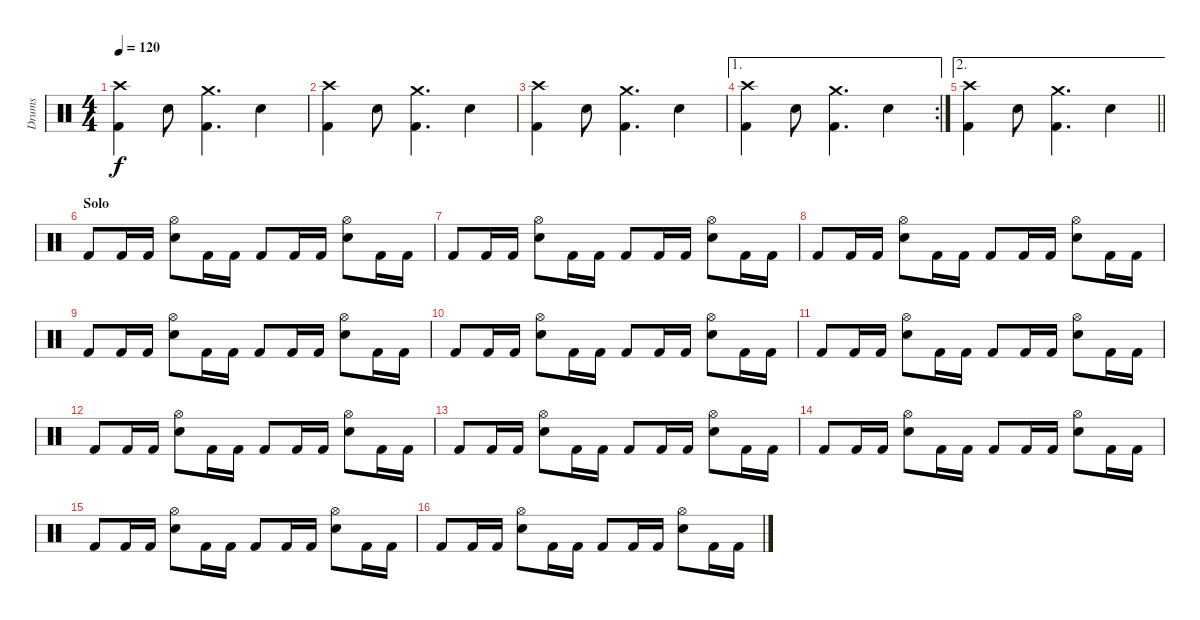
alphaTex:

\track ("Drums" "Drums") {instrument percussion}
\staff {score}
\articulation defaults
\ts (4 4)
\tempo 120
\clef neutral
\ks c
("Kick (hit) 2" "Crash high (hit)").4{dy f} "Snare (hit) 2".8 ("Kick (hit) 2" "Crash medium (hit)").4{d} "Snare (hit) 2".4 |
("Kick (hit) 2" "Crash high (hit)").4 "Snare (hit) 2".8 ("Kick (hit) 2" "Crash medium (hit)").4{d} "Snare (hit) 2".4 |
("Kick (hit) 2" "Crash high (hit)").4 "Snare (hit) 2".8 ("Kick (hit) 2" "Crash medium (hit)").4{d} "Snare (hit) 2".4 |
\ae 1
\rc 2
("Kick (hit) 2" "Crash high (hit)").4 "Snare (hit) 2".8 ("Kick (hit) 2" "Crash medium (hit)").4{d} "Snare (hit) 2".4 |
\ae 2
\barLineRight lightlight
("Kick (hit) 2" "Crash high (hit)").4 "Snare (hit) 2".8 ("Kick (hit) 2" "Crash medium (hit)").4{d} "Snare (hit) 2".4 |
\section ("" "Solo")
"Kick (hit) 2".8 "Kick (hit) 2".16 "Kick (hit) 2".16 ("Snare (hit) 2" "Hi-Hat (open)").8 "Kick (hit) 2".16 "Kick (hit) 2".16 "Kick (hit) 2".8 "Kick (hit) 2".16 "Kick (hit) 2".16 ("Snare (hit) 2" "Hi-Hat (open)").8 "Kick (hit) 2".16 "Kick (hit) 2".16 |
"Kick (hit) 2".8 "Kick (hit) 2".16 "Kick (hit) 2".16 ("Snare (hit) 2" "Hi-Hat (open)").8 "Kick (hit) 2".16 "Kick (hit) 2".16 "Kick (hit) 2".8 "Kick (hit) 2".16 "Kick (hit) 2".16 ("Snare (hit) 2" "Hi-Hat (open)").8 "Kick (hit) 2".16 "Kick (hit) 2".16 |
"Kick (hit) 2".8 "Kick (hit) 2".16 "Kick (hit) 2".16 ("Snare (hit) 2" "Hi-Hat (open)").8 "Kick (hit) 2".16 "Kick (hit) 2".16 "Kick (hit) 2".8 "Kick (hit) 2".16 "Kick (hit) 2".16 ("Snare (hit) 2" "Hi-Hat (open)").8 "Kick (hit) 2".16 "Kick (hit) 2".16 |
"Kick (hit) 2".8 "Kick (hit) 2".16 "Kick (hit) 2".16 ("Snare (hit) 2" "Hi-Hat (open)").8 "Kick (hit) 2".16 "Kick (hit) 2".16 "Kick (hit) 2".8 "Kick (hit) 2".16 "Kick (hit) 2".16 ("Snare (hit) 2" "Hi-Hat (open)").8 "Kick (hit) 2".16 "Kick (hit) 2".16 |
"Kick (hit) 2".8 "Kick (hit) 2".16 "Kick (hit) 2".16 ("Snare (hit) 2" "Hi-Hat (open)").8 "Kick (hit) 2".16 "Kick (hit) 2".16 "Kick (hit) 2".8 "Kick (hit) 2".16 "Kick (hit) 2".16 ("Snare (hit) 2" "Hi-Hat (open)").8 "Kick (hit) 2".16 "Kick (hit) 2".16 |
"Kick (hit) 2".8 "Kick (hit) 2".16 "Kick (hit) 2".16 ("Snare (hit) 2" "Hi-Hat (open)").8 "Kick (hit) 2".16 "Kick (hit) 2".16 "Kick (hit) 2".8 "Kick (hit) 2".16 "Kick (hit) 2".16 ("Snare (hit) 2" "Hi-Hat (open)").8 "Kick (hit) 2".16 "Kick (hit) 2".16 |
"Kick (hit) 2".8 "Kick (hit) 2".16 "Kick (hit) 2".16 ("Snare (hit) 2" "Hi-Hat (open)").8 "Kick (hit) 2".16 "Kick (hit) 2".16 "Kick (hit) 2".8 "Kick (hit) 2".16 "Kick (hit) 2".16 ("Snare (hit) 2" "Hi-Hat (open)").8 "Kick (hit) 2".16 "Kick (hit) 2".16 |
"Kick (hit) 2".8 "Kick (hit) 2".16 "Kick (hit) 2".16 ("Snare (hit) 2" "Hi-Hat (open)").8 "Kick (hit) 2".16 "Kick (hit) 2".16 "Kick (hit) 2".8 "Kick (hit) 2".16 "Kick (hit) 2".16 ("Snare (hit) 2" "Hi-Hat (open)").8 "Kick (hit) 2".16 "Kick (hit) 2".16 |
"Kick (hit) 2".8 "Kick (hit) 2".16 "Kick (hit) 2".16 ("Snare (hit) 2" "Hi-Hat (open)").8 "Kick (hit) 2".16 "Kick (hit) 2".16 "Kick (hit) 2".8 "Kick (hit) 2".16 "Kick (hit) 2".16 ("Snare (hit) 2" "Hi-Hat (open)").8 "Kick (hit) 2".16 "Kick (hit) 2".16 |
"Kick (hit) 2".8 "Kick (hit) 2".16 "Kick (hit) 2".16 ("Snare (hit) 2" "Hi-Hat (open)").8 "Kick (hit) 2".16 "Kick (hit) 2".16 "Kick (hit) 2".8 "Kick (hit) 2".16 "Kick (hit) 2".16 ("Snare (hit) 2" "Hi-Hat (open)").8 "Kick (hit) 2".16 "Kick (hit) 2".16 |
"Kick (hit) 2".8 "Kick (hit) 2".16 "Kick (hit) 2".16 ("Snare (hit) 2" "Hi-Hat (open)").8 "Kick (hit) 2".16 "Kick (hit) 2".16 "Kick (hit) 2".8 "Kick (hit) 2".16 "Kick (hit) 2".16 ("Snare (hit) 2" "Hi-Hat (open)").8 "Kick (hit) 2".16 "Kick (hit) 2".16
